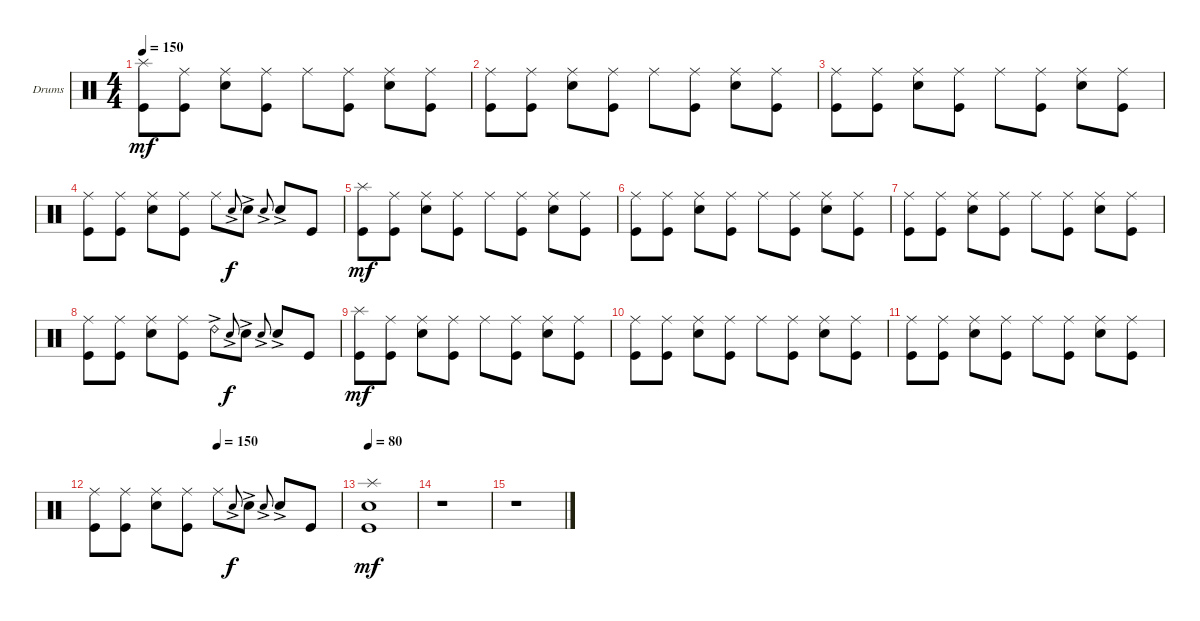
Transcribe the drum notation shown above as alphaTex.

\bracketExtendMode groupsimilarinstruments
\firstSystemTrackNameOrientation horizontal
\otherSystemsTrackNameOrientation horizontal
\track ("Drumkit" "Drums") {instrument percussion}
\staff {score}
\articulation defaults
\ts (4 4)
\tempo 150
\clef neutral
\ks c
("Kick (hit)" "Splash (hit)").8{dy mf} ("Kick (hit)" "Ride (middle)").8 ("Snare (hit) 2" "Ride (middle)").8 ("Kick (hit)" "Ride (middle)").8 "Ride (middle)".8 ("Kick (hit)" "Ride (middle)").8 ("Snare (hit) 2" "Ride (middle)").8 ("Kick (hit)" "Ride (middle)").8 |
("Kick (hit)" "Ride (middle)").8 ("Kick (hit)" "Ride (middle)").8 ("Snare (hit) 2" "Ride (middle)").8 ("Kick (hit)" "Ride (middle)").8 "Ride (middle)".8 ("Kick (hit)" "Ride (middle)").8 ("Snare (hit) 2" "Ride (middle)").8 ("Kick (hit)" "Ride (middle)").8 |
("Kick (hit)" "Ride (middle)").8 ("Kick (hit)" "Ride (middle)").8 ("Snare (hit) 2" "Ride (middle)").8 ("Kick (hit)" "Ride (middle)").8 "Ride (middle)".8 ("Kick (hit)" "Ride (middle)").8 ("Snare (hit) 2" "Ride (middle)").8 ("Kick (hit)" "Ride (middle)").8 |
("Kick (hit)" "Ride (middle)").8 ("Kick (hit)" "Ride (middle)").8 ("Snare (hit) 2" "Ride (middle)").8 ("Kick (hit)" "Ride (middle)").8 "Ride (middle)".8 "Snare (hit) 2"{ac}.8{gr onbeat dy f} "Snare (hit) 2"{ac}.8 "Snare (hit) 2"{ac}.8{gr onbeat} "Snare (hit) 2"{ac}.8 "Kick (hit)".8 |
("Kick (hit)" "Splash (hit)").8{dy mf} ("Kick (hit)" "Ride (middle)").8 ("Snare (hit) 2" "Ride (middle)").8 ("Kick (hit)" "Ride (middle)").8 "Ride (middle)".8 ("Kick (hit)" "Ride (middle)").8 ("Snare (hit) 2" "Ride (middle)").8 ("Kick (hit)" "Ride (middle)").8 |
("Kick (hit)" "Ride (middle)").8 ("Kick (hit)" "Ride (middle)").8 ("Snare (hit) 2" "Ride (middle)").8 ("Kick (hit)" "Ride (middle)").8 "Ride (middle)".8 ("Kick (hit)" "Ride (middle)").8 ("Snare (hit) 2" "Ride (middle)").8 ("Kick (hit)" "Ride (middle)").8 |
("Kick (hit)" "Ride (middle)").8 ("Kick (hit)" "Ride (middle)").8 ("Snare (hit) 2" "Ride (middle)").8 ("Kick (hit)" "Ride (middle)").8 "Ride (middle)".8 ("Kick (hit)" "Ride (middle)").8 ("Snare (hit) 2" "Ride (middle)").8 ("Kick (hit)" "Ride (middle)").8 |
("Kick (hit)" "Ride (middle)").8 ("Kick (hit)" "Ride (middle)").8 ("Snare (hit) 2" "Ride (middle)").8 ("Kick (hit)" "Ride (middle)").8 "Ride (bell) 2"{ac}.8 "Snare (hit) 2"{ac}.8{gr onbeat dy f} "Snare (hit) 2"{ac}.8 "Snare (hit) 2"{ac}.8{gr onbeat} "Snare (hit) 2"{ac}.8 "Kick (hit)".8 |
("Kick (hit)" "Splash (hit)").8{dy mf} ("Kick (hit)" "Ride (middle)").8 ("Snare (hit) 2" "Ride (middle)").8 ("Kick (hit)" "Ride (middle)").8 "Ride (middle)".8 ("Kick (hit)" "Ride (middle)").8 ("Snare (hit) 2" "Ride (middle)").8 ("Kick (hit)" "Ride (middle)").8 |
("Kick (hit)" "Ride (middle)").8 ("Kick (hit)" "Ride (middle)").8 ("Snare (hit) 2" "Ride (middle)").8 ("Kick (hit)" "Ride (middle)").8 "Ride (middle)".8 ("Kick (hit)" "Ride (middle)").8 ("Snare (hit) 2" "Ride (middle)").8 ("Kick (hit)" "Ride (middle)").8 |
("Kick (hit)" "Ride (middle)").8 ("Kick (hit)" "Ride (middle)").8 ("Snare (hit) 2" "Ride (middle)").8 ("Kick (hit)" "Ride (middle)").8 "Ride (middle)".8 ("Kick (hit)" "Ride (middle)").8 ("Snare (hit) 2" "Ride (middle)").8 ("Kick (hit)" "Ride (middle)").8 |
\tempo (150 0.5)
("Kick (hit)" "Ride (middle)").8 ("Kick (hit)" "Ride (middle)").8 ("Snare (hit) 2" "Ride (middle)").8 ("Kick (hit)" "Ride (middle)").8 "Ride (middle)".8 "Snare (hit) 2"{ac}.8{gr onbeat dy f} "Snare (hit) 2"{ac}.8 "Snare (hit) 2"{ac}.8{gr onbeat} "Snare (hit) 2"{ac}.8 "Kick (hit)".8 |
\tempo 80
("Splash (hit)" "Snare (hit) 2" "Kick (hit)").1{dy mf} |
r.1 |
r.1
